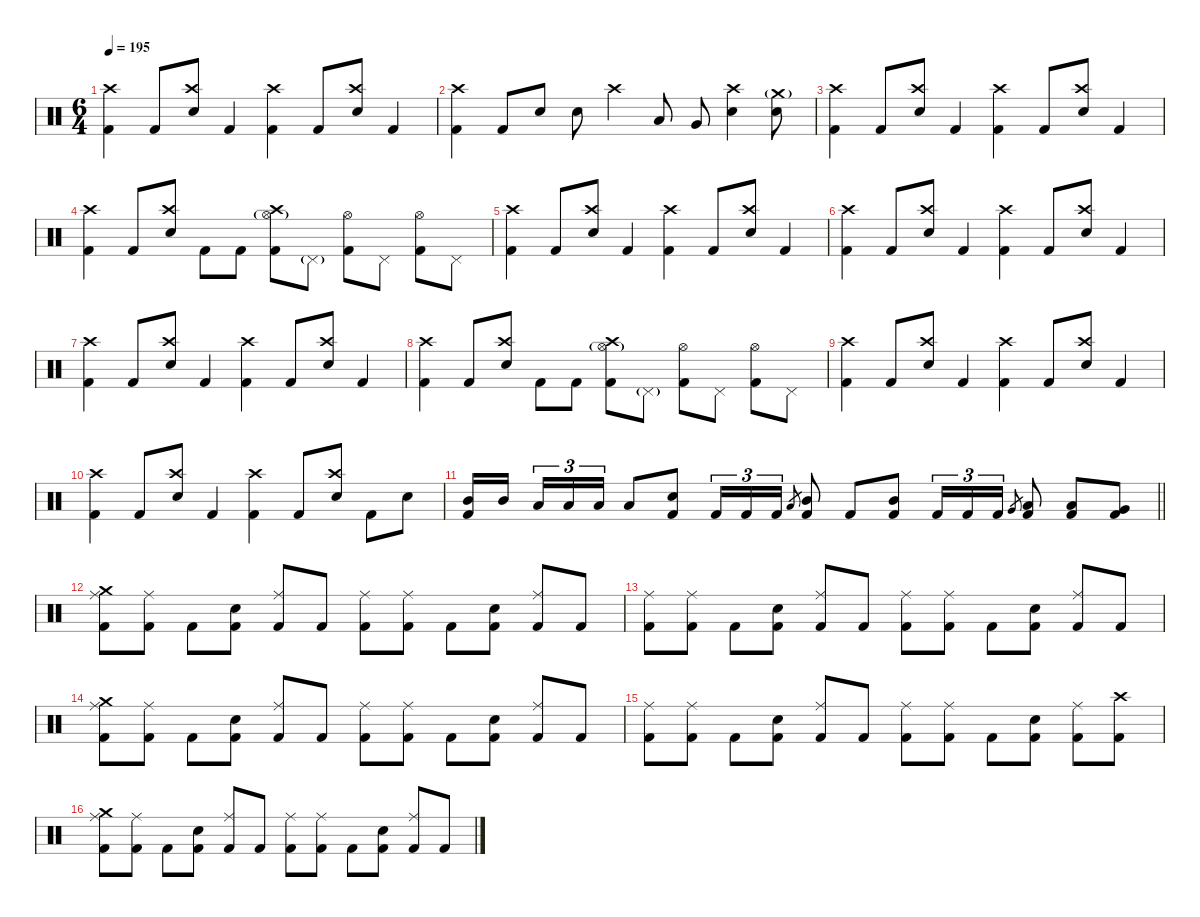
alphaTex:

\defaultSystemsLayout 4
\hideDynamics
\bracketExtendMode nobrackets
\singleTrackTrackNamePolicy hidden
\multiTrackTrackNamePolicy hidden
\firstSystemTrackNameMode fullname
\firstSystemTrackNameOrientation horizontal
\otherSystemsTrackNameOrientation horizontal
\track ("Drums" "drm.") {instrument percussion}
\staff {score}
\articulation defaults
\ts (6 4)
\tempo 195
\clef neutral
\ks c
("Crash high (hit)" "Kick (hit) 2").4{dy f beam Down} "Kick (hit) 2".8{beam Up} ("Crash high (hit)" "Snare (hit) 2").8{beam Down} "Kick (hit) 2".4{beam Up} ("Crash high (hit)" "Kick (hit) 2").4{beam Down} "Kick (hit) 2".8{beam Up} ("Crash high (hit)" "Snare (hit) 2").8{beam Down} "Kick (hit) 2".4{beam Up} |
("Crash high (hit)" "Kick (hit) 2").4{beam Down} "Kick (hit) 2".8{beam Up} "Snare (hit) 2".8{beam Down} "Snare (hit) 2".8{beam Down} "Crash high (hit)".4{beam Down} "Low Tom (hit)".8{beam Up} "Very Low Tom (hit)".8{beam Up} ("Crash high (hit)" "Snare (hit) 2").4{beam Down} ("Crash medium (hit)"{g} "Snare (hit) 2").8{beam Down} |
("Crash high (hit)" "Kick (hit) 2").4{beam Down} "Kick (hit) 2".8{beam Up} ("Crash high (hit)" "Snare (hit) 2").8{beam Down} "Kick (hit) 2".4{beam Up} ("Crash high (hit)" "Kick (hit) 2").4{beam Down} "Kick (hit) 2".8{beam Up} ("Crash high (hit)" "Snare (hit) 2").8{beam Down} "Kick (hit) 2".4{beam Up} |
("Crash high (hit)" "Kick (hit) 2").4{beam Down} "Kick (hit) 2".8{beam Up} ("Crash high (hit)" "Snare (hit) 2").8{beam Down} "Kick (hit) 2".8{beam Down} "Kick (hit) 2".8{beam Down} ("Crash high (hit)" "Hi-Hat (open)"{g} "Kick (hit) 2").8{beam Down} "Pedal Hi-Hat (hit)"{g}.8{dy mf beam Down} ("Hi-Hat (open)" "Kick (hit) 2").8{dy f beam Down} "Pedal Hi-Hat (hit)".8{beam Down} ("Hi-Hat (open)" "Kick (hit) 2").8{beam Down} "Pedal Hi-Hat (hit)".8{beam Down} |
("Crash high (hit)" "Kick (hit) 2").4{beam Down} "Kick (hit) 2".8{beam Up} ("Crash high (hit)" "Snare (hit) 2").8{beam Down} "Kick (hit) 2".4{beam Up} ("Crash high (hit)" "Kick (hit) 2").4{beam Down} "Kick (hit) 2".8{beam Up} ("Crash high (hit)" "Snare (hit) 2").8{beam Down} "Kick (hit) 2".4{beam Up} |
("Crash high (hit)" "Kick (hit) 2").4{beam Down} "Kick (hit) 2".8{beam Up} ("Crash high (hit)" "Snare (hit) 2").8{beam Down} "Kick (hit) 2".4{beam Up} ("Crash high (hit)" "Kick (hit) 2").4{beam Down} "Kick (hit) 2".8{beam Up} ("Crash high (hit)" "Snare (hit) 2").8{beam Down} "Kick (hit) 2".4{beam Up} |
("Crash high (hit)" "Kick (hit) 2").4{beam Down} "Kick (hit) 2".8{beam Up} ("Crash high (hit)" "Snare (hit) 2").8{beam Down} "Kick (hit) 2".4{beam Up} ("Crash high (hit)" "Kick (hit) 2").4{beam Down} "Kick (hit) 2".8{beam Up} ("Crash high (hit)" "Snare (hit) 2").8{beam Down} "Kick (hit) 2".4{beam Up} |
("Crash high (hit)" "Kick (hit) 2").4{beam Down} "Kick (hit) 2".8{beam Up} ("Crash high (hit)" "Snare (hit) 2").8{beam Down} "Kick (hit) 2".8{beam Down} "Kick (hit) 2".8{beam Down} ("Crash high (hit)" "Hi-Hat (open)"{g} "Kick (hit) 2").8{beam Down} "Pedal Hi-Hat (hit)"{g}.8{dy mf beam Down} ("Hi-Hat (open)" "Kick (hit) 2").8{dy f beam Down} "Pedal Hi-Hat (hit)".8{beam Down} ("Hi-Hat (open)" "Kick (hit) 2").8{beam Down} "Pedal Hi-Hat (hit)".8{beam Down} |
("Crash high (hit)" "Kick (hit) 2").4{beam Down} "Kick (hit) 2".8{beam Up} ("Crash high (hit)" "Snare (hit) 2").8{beam Down} "Kick (hit) 2".4{beam Up} ("Crash high (hit)" "Kick (hit) 2").4{beam Down} "Kick (hit) 2".8{beam Up} ("Crash high (hit)" "Snare (hit) 2").8{beam Down} "Kick (hit) 2".4{beam Up} |
("Crash high (hit)" "Kick (hit) 2").4{beam Down} "Kick (hit) 2".8{beam Up} ("Crash high (hit)" "Snare (hit) 2").8{beam Down} "Kick (hit) 2".4{beam Up} ("Crash high (hit)" "Kick (hit) 2").4{beam Down} "Kick (hit) 2".8{beam Up} ("Crash high (hit)" "Snare (hit) 2").8{beam Down} "Kick (hit) 2".8{beam Down} "Snare (hit) 2".8{beam Down} |
\barLineRight lightlight
("Mid Tom (hit)" "Kick (hit) 2").16{beam Up} "Mid Tom (hit)".16{beam Up} "Low Tom (hit)".16{tu (3 2) beam Up} "Low Tom (hit)".16{tu (3 2) beam Up} "Low Tom (hit)".16{tu (3 2) beam Up} "Low Tom (hit)".8{beam Up} ("Snare (hit) 2" "Kick (hit) 2").8{beam Up} "Kick (hit) 2".16{tu (3 2) beam Up} "Kick (hit) 2".16{tu (3 2) beam Up} "Kick (hit) 2".16{tu (3 2) beam Up} "Low Tom (hit)".8{gr dy mf beam Up} ("Mid Tom (hit)" "Kick (hit) 2").8{dy f beam Up} "Kick (hit) 2".8{beam Up} ("Mid Tom (hit)" "Kick (hit) 2").8{beam Up} "Kick (hit) 2".16{tu (3 2) beam Up} "Kick (hit) 2".16{tu (3 2) beam Up} "Kick (hit) 2".16{tu (3 2) beam Up} "Very Low Tom (hit)".8{gr dy p beam Up} ("Low Tom (hit)" "Kick (hit) 2").8{dy f beam Up} ("Low Tom (hit)" "Kick (hit) 2").8{beam Up} ("Very Low Tom (hit)" "Kick (hit) 2").8{beam Up} |
("Ride (middle)" "Crash medium (hit)" "Kick (hit) 2").8{beam Down} ("Ride (middle)" "Kick (hit) 2").8{beam Down} "Kick (hit) 2".8{beam Down} ("Snare (hit) 2" "Kick (hit) 2").8{beam Up} ("Ride (middle)" "Kick (hit) 2").8{beam Up} "Kick (hit) 2".8{beam Up} ("Ride (middle)" "Kick (hit) 2").8{beam Down} ("Ride (middle)" "Kick (hit) 2").8{beam Down} "Kick (hit) 2".8{beam Down} ("Snare (hit) 2" "Kick (hit) 2").8{beam Up} ("Ride (middle)" "Kick (hit) 2").8{beam Up} "Kick (hit) 2".8{beam Up} |
("Ride (middle)" "Kick (hit) 2").8{beam Down} ("Ride (middle)" "Kick (hit) 2").8{beam Down} "Kick (hit) 2".8{beam Down} ("Snare (hit) 2" "Kick (hit) 2").8{beam Up} ("Ride (middle)" "Kick (hit) 2").8{beam Up} "Kick (hit) 2".8{beam Up} ("Ride (middle)" "Kick (hit) 2").8{beam Down} ("Ride (middle)" "Kick (hit) 2").8{beam Down} "Kick (hit) 2".8{beam Down} ("Snare (hit) 2" "Kick (hit) 2").8{beam Up} ("Ride (middle)" "Kick (hit) 2").8{beam Up} "Kick (hit) 2".8{beam Up} |
("Ride (middle)" "Crash medium (hit)" "Kick (hit) 2").8{beam Down} ("Ride (middle)" "Kick (hit) 2").8{beam Down} "Kick (hit) 2".8{beam Down} ("Snare (hit) 2" "Kick (hit) 2").8{beam Up} ("Ride (middle)" "Kick (hit) 2").8{beam Up} "Kick (hit) 2".8{beam Up} ("Ride (middle)" "Kick (hit) 2").8{beam Down} ("Ride (middle)" "Kick (hit) 2").8{beam Down} "Kick (hit) 2".8{beam Down} ("Snare (hit) 2" "Kick (hit) 2").8{beam Up} ("Ride (middle)" "Kick (hit) 2").8{beam Up} "Kick (hit) 2".8{beam Up} |
("Ride (middle)" "Kick (hit) 2").8{beam Down} ("Ride (middle)" "Kick (hit) 2").8{beam Down} "Kick (hit) 2".8{beam Down} ("Snare (hit) 2" "Kick (hit) 2").8{beam Up} ("Ride (middle)" "Kick (hit) 2").8{beam Up} "Kick (hit) 2".8{beam Up} ("Ride (middle)" "Kick (hit) 2").8{beam Down} ("Ride (middle)" "Kick (hit) 2").8{beam Down} "Kick (hit) 2".8{beam Down} ("Snare (hit) 2" "Kick (hit) 2").8{beam Down} ("Ride (middle)" "Kick (hit) 2").8{beam Down} ("Crash high (hit)" "Kick (hit) 2").8{beam Down} |
("Ride (middle)" "Crash medium (hit)" "Kick (hit) 2").8{beam Down} ("Ride (middle)" "Kick (hit) 2").8{beam Down} "Kick (hit) 2".8{beam Down} ("Snare (hit) 2" "Kick (hit) 2").8{beam Up} ("Ride (middle)" "Kick (hit) 2").8{beam Up} "Kick (hit) 2".8{beam Up} ("Ride (middle)" "Kick (hit) 2").8{beam Down} ("Ride (middle)" "Kick (hit) 2").8{beam Down} "Kick (hit) 2".8{beam Down} ("Snare (hit) 2" "Kick (hit) 2").8{beam Up} ("Ride (middle)" "Kick (hit) 2").8{beam Up} "Kick (hit) 2".8{beam Up}
